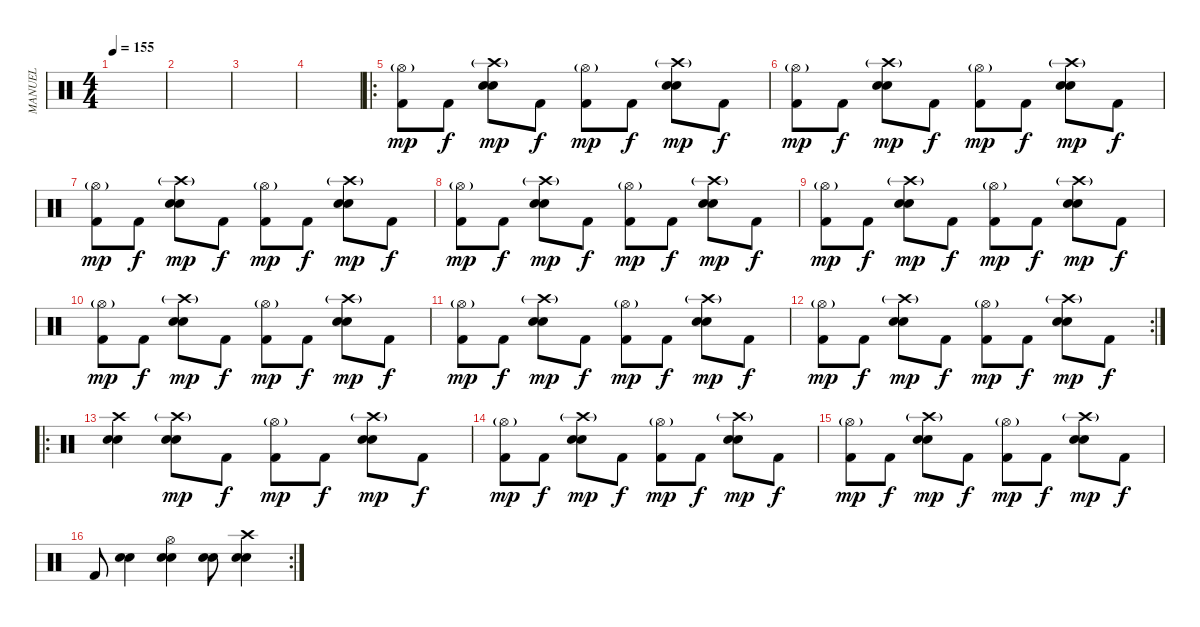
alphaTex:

\track ("MANUEL" "MANUEL") {instrument percussion}
\staff {score}
\articulation defaults
\ts (4 4)
\tempo 155
\clef neutral
\ks c
|
|
|
|
\ro
("Hi-Hat (open)"{g} "Kick (hit) 2").8{dy mp} "Kick (hit) 2".8{dy f} ("Crash high (hit)"{g} "Snare (hit) 2" "Electric Snare (hit)").8{dy mp} "Kick (hit) 2".8{dy f} ("Hi-Hat (open)"{g} "Kick (hit) 2").8{dy mp} "Kick (hit) 2".8{dy f} ("Crash high (hit)"{g} "Snare (hit) 2" "Electric Snare (hit)").8{dy mp} "Kick (hit) 2".8{dy f} |
("Hi-Hat (open)"{g} "Kick (hit) 2").8{dy mp} "Kick (hit) 2".8{dy f} ("Crash high (hit)"{g} "Snare (hit) 2" "Electric Snare (hit)").8{dy mp} "Kick (hit) 2".8{dy f} ("Hi-Hat (open)"{g} "Kick (hit) 2").8{dy mp} "Kick (hit) 2".8{dy f} ("Crash high (hit)"{g} "Snare (hit) 2" "Electric Snare (hit)").8{dy mp} "Kick (hit) 2".8{dy f} |
("Hi-Hat (open)"{g} "Kick (hit) 2").8{dy mp} "Kick (hit) 2".8{dy f} ("Crash high (hit)"{g} "Snare (hit) 2" "Electric Snare (hit)").8{dy mp} "Kick (hit) 2".8{dy f} ("Hi-Hat (open)"{g} "Kick (hit) 2").8{dy mp} "Kick (hit) 2".8{dy f} ("Crash high (hit)"{g} "Snare (hit) 2" "Electric Snare (hit)").8{dy mp} "Kick (hit) 2".8{dy f} |
("Hi-Hat (open)"{g} "Kick (hit) 2").8{dy mp} "Kick (hit) 2".8{dy f} ("Crash high (hit)"{g} "Snare (hit) 2" "Electric Snare (hit)").8{dy mp} "Kick (hit) 2".8{dy f} ("Hi-Hat (open)"{g} "Kick (hit) 2").8{dy mp} "Kick (hit) 2".8{dy f} ("Crash high (hit)"{g} "Snare (hit) 2" "Electric Snare (hit)").8{dy mp} "Kick (hit) 2".8{dy f} |
("Hi-Hat (open)"{g} "Kick (hit) 2").8{dy mp} "Kick (hit) 2".8{dy f} ("Crash high (hit)"{g} "Snare (hit) 2" "Electric Snare (hit)").8{dy mp} "Kick (hit) 2".8{dy f} ("Hi-Hat (open)"{g} "Kick (hit) 2").8{dy mp} "Kick (hit) 2".8{dy f} ("Crash high (hit)"{g} "Snare (hit) 2" "Electric Snare (hit)").8{dy mp} "Kick (hit) 2".8{dy f} |
("Hi-Hat (open)"{g} "Kick (hit) 2").8{dy mp} "Kick (hit) 2".8{dy f} ("Crash high (hit)"{g} "Snare (hit) 2" "Electric Snare (hit)").8{dy mp} "Kick (hit) 2".8{dy f} ("Hi-Hat (open)"{g} "Kick (hit) 2").8{dy mp} "Kick (hit) 2".8{dy f} ("Crash high (hit)"{g} "Snare (hit) 2" "Electric Snare (hit)").8{dy mp} "Kick (hit) 2".8{dy f} |
("Hi-Hat (open)"{g} "Kick (hit) 2").8{dy mp} "Kick (hit) 2".8{dy f} ("Crash high (hit)"{g} "Snare (hit) 2" "Electric Snare (hit)").8{dy mp} "Kick (hit) 2".8{dy f} ("Hi-Hat (open)"{g} "Kick (hit) 2").8{dy mp} "Kick (hit) 2".8{dy f} ("Crash high (hit)"{g} "Snare (hit) 2" "Electric Snare (hit)").8{dy mp} "Kick (hit) 2".8{dy f} |
\rc 2
("Hi-Hat (open)"{g} "Kick (hit) 2").8{dy mp} "Kick (hit) 2".8{dy f} ("Crash high (hit)"{g} "Snare (hit) 2" "Electric Snare (hit)").8{dy mp} "Kick (hit) 2".8{dy f} ("Hi-Hat (open)"{g} "Kick (hit) 2").8{dy mp} "Kick (hit) 2".8{dy f} ("Crash high (hit)"{g} "Snare (hit) 2" "Electric Snare (hit)").8{dy mp} "Kick (hit) 2".8{dy f} |
\ro
("Crash high (hit)" "Snare (hit) 2" "Electric Snare (hit)").4 ("Crash high (hit)"{g} "Snare (hit) 2" "Electric Snare (hit)").8{dy mp} "Kick (hit) 2".8{dy f} ("Hi-Hat (open)"{g} "Kick (hit) 2").8{dy mp} "Kick (hit) 2".8{dy f} ("Crash high (hit)"{g} "Snare (hit) 2" "Electric Snare (hit)").8{dy mp} "Kick (hit) 2".8{dy f} |
("Hi-Hat (open)"{g} "Kick (hit) 2").8{dy mp} "Kick (hit) 2".8{dy f} ("Crash high (hit)"{g} "Snare (hit) 2" "Electric Snare (hit)").8{dy mp} "Kick (hit) 2".8{dy f} ("Hi-Hat (open)"{g} "Kick (hit) 2").8{dy mp} "Kick (hit) 2".8{dy f} ("Crash high (hit)"{g} "Snare (hit) 2" "Electric Snare (hit)").8{dy mp} "Kick (hit) 2".8{dy f} |
("Hi-Hat (open)"{g} "Kick (hit) 2").8{dy mp} "Kick (hit) 2".8{dy f} ("Crash high (hit)"{g} "Snare (hit) 2" "Electric Snare (hit)").8{dy mp} "Kick (hit) 2".8{dy f} ("Hi-Hat (open)"{g} "Kick (hit) 2").8{dy mp} "Kick (hit) 2".8{dy f} ("Crash high (hit)"{g} "Snare (hit) 2" "Electric Snare (hit)").8{dy mp} "Kick (hit) 2".8{dy f} |
\rc 2 "Kick (hit) 2".8
("Snare (hit) 2" "Electric Snare (hit)").4 ("Hi-Hat (open)" "Snare (hit) 2" "Electric Snare (hit)").4 ("Snare (hit) 2" "Electric Snare (hit)").8 ("Crash high (hit)" "Snare (hit) 2" "Electric Snare (hit)").4
